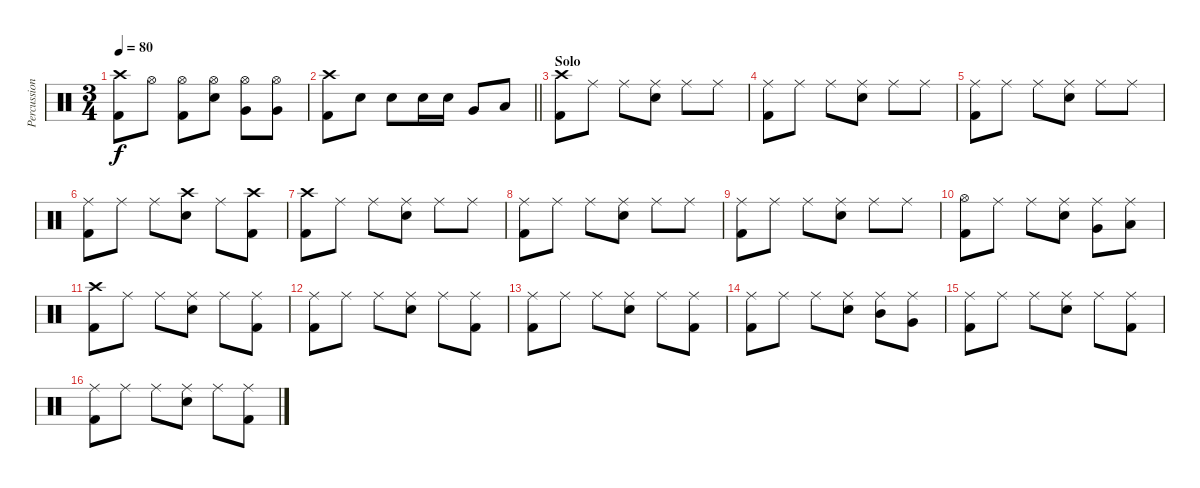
\track ("Percussion" "Percussion") {instrument percussion}
\staff {score}
\articulation defaults
\ts (3 4)
\tempo 80
\clef neutral
\ks c
("Crash high (hit)" "Kick (hit) 2").8{dy f} "Hi-Hat (open)".8 ("Hi-Hat (open)" "Kick (hit) 2").8 ("Hi-Hat (open)" "Snare (hit) 2").8 ("Hi-Hat (open)" "Very Low Tom (hit)").8 ("Hi-Hat (open)" "Very Low Tom (hit)").8 |
\barLineRight lightlight
("Crash high (hit)" "Kick (hit) 2").8 "Snare (hit) 2".8 "Snare (hit) 2".8 "Snare (hit) 2".16 "Snare (hit) 2".16 "Very Low Tom (hit)".8 "Low Floor Tom (hit)".8 |
\section ("" "Solo")
("Crash high (hit)" "Kick (hit) 2").8 "Ride (middle)".8 "Ride (middle)".8 ("Ride (middle)" "Snare (hit) 2").8 "Ride (middle)".8 "Ride (middle)".8 |
("Ride (middle)" "Kick (hit) 2").8 "Ride (middle)".8 "Ride (middle)".8 ("Ride (middle)" "Snare (hit) 2").8 "Ride (middle)".8 "Ride (middle)".8 |
("Ride (middle)" "Kick (hit) 2").8 "Ride (middle)".8 "Ride (middle)".8 ("Ride (middle)" "Snare (hit) 2").8 "Ride (middle)".8 "Ride (middle)".8 |
("Ride (middle)" "Kick (hit) 2").8 "Ride (middle)".8 "Ride (middle)".8 ("Crash high (hit)" "Snare (hit) 2").8 "Ride (middle)".8 ("Crash high (hit)" "Kick (hit) 2").8 |
("Crash high (hit)" "Kick (hit) 2").8 "Ride (middle)".8 "Ride (middle)".8 ("Ride (middle)" "Snare (hit) 2").8 "Ride (middle)".8 "Ride (middle)".8 |
("Ride (middle)" "Kick (hit) 2").8 "Ride (middle)".8 "Ride (middle)".8 ("Ride (middle)" "Snare (hit) 2").8 "Ride (middle)".8 "Ride (middle)".8 |
("Ride (middle)" "Kick (hit) 2").8 "Ride (middle)".8 "Ride (middle)".8 ("Ride (middle)" "Snare (hit) 2").8 "Ride (middle)".8 "Ride (middle)".8 |
("Hi-Hat (open)" "Kick (hit) 2").8 "Ride (middle)".8 "Ride (middle)".8 ("Ride (middle)" "Snare (hit) 2").8 ("Ride (middle)" "Very Low Tom (hit)").8 ("Ride (middle)" "Low Floor Tom (hit)").8 |
("Crash high (hit)" "Kick (hit) 2").8 "Ride (middle)".8 "Ride (middle)".8 ("Ride (middle)" "Snare (hit) 2").8 "Ride (middle)".8 ("Ride (middle)" "Kick (hit) 2").8 |
("Ride (middle)" "Kick (hit) 2").8 "Ride (middle)".8 "Ride (middle)".8 ("Ride (middle)" "Snare (hit) 2").8 "Ride (middle)".8 ("Ride (middle)" "Kick (hit) 2").8 |
("Ride (middle)" "Kick (hit) 2").8 "Ride (middle)".8 "Ride (middle)".8 ("Ride (middle)" "Snare (hit) 2").8 "Ride (middle)".8 ("Ride (middle)" "Kick (hit) 2").8 |
("Ride (middle)" "Kick (hit) 2").8 "Ride (middle)".8 "Ride (middle)".8 ("Ride (middle)" "Snare (hit) 2").8 ("Ride (middle)" "Mid Tom (hit)").8 ("Ride (middle)" "Very Low Tom (hit)").8 |
("Ride (middle)" "Kick (hit) 2").8 "Ride (middle)".8 "Ride (middle)".8 ("Ride (middle)" "Snare (hit) 2").8 "Ride (middle)".8 ("Ride (middle)" "Kick (hit) 2").8 |
("Ride (middle)" "Kick (hit) 2").8 "Ride (middle)".8 "Ride (middle)".8 ("Ride (middle)" "Snare (hit) 2").8 "Ride (middle)".8 ("Ride (middle)" "Kick (hit) 2").8
